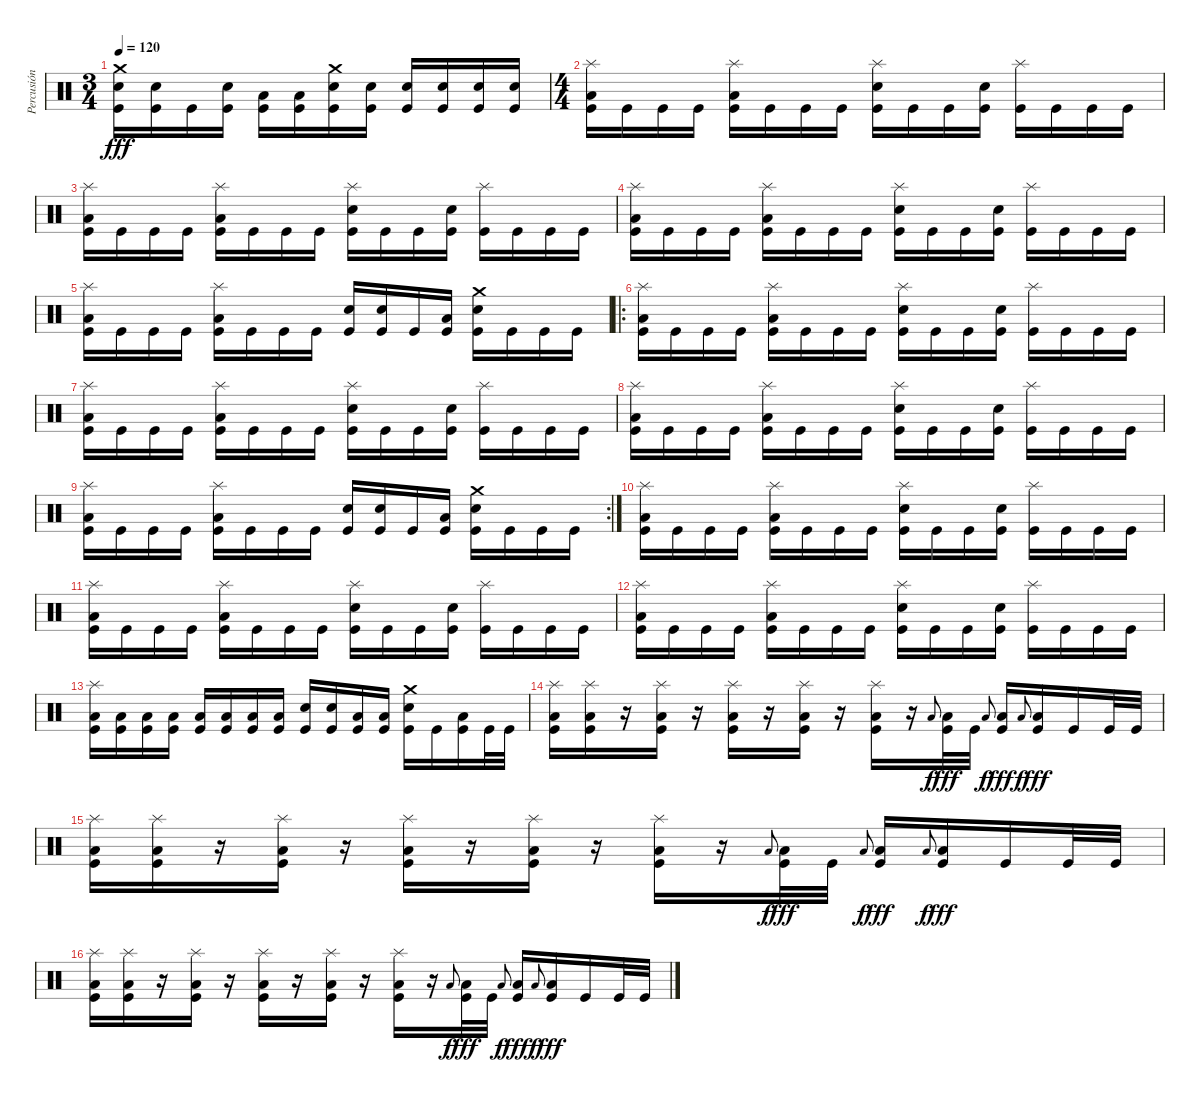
\track ("Percusión" "Percusión") {instrument percussion}
\staff {score}
\articulation defaults
\ts (3 4)
\tempo 120
\clef neutral
\ks c
("Crash medium (hit)" "Snare (hit) 2" "Kick (hit)").16{dy fff} ("Snare (hit) 2" "Kick (hit)").16 "Kick (hit)".16 ("Snare (hit) 2" "Kick (hit)").16 ("Low Floor Tom (hit)" "Kick (hit)").16 ("Low Floor Tom (hit)" "Kick (hit)").16 ("Crash medium (hit)" "Snare (hit) 2" "Kick (hit)").16 ("Snare (hit) 2" "Kick (hit)").16 ("Snare (hit) 2" "Kick (hit)").16 ("Snare (hit) 2" "Kick (hit)").16 ("Snare (hit) 2" "Kick (hit)").16 ("Snare (hit) 2" "Kick (hit)").16 |
\ts (4 4)
("Splash (hit)" "Low Floor Tom (hit)" "Kick (hit)").16 "Kick (hit)".16 "Kick (hit)".16 "Kick (hit)".16 ("Splash (hit)" "Low Floor Tom (hit)" "Kick (hit)").16 "Kick (hit)".16 "Kick (hit)".16 "Kick (hit)".16 ("Splash (hit)" "Snare (hit) 2" "Kick (hit)").16 "Kick (hit)".16 "Kick (hit)".16 ("Snare (hit) 2" "Kick (hit)").16 ("Splash (hit)" "Kick (hit)").16 "Kick (hit)".16 "Kick (hit)".16 "Kick (hit)".16 |
("Splash (hit)" "Low Floor Tom (hit)" "Kick (hit)").16 "Kick (hit)".16 "Kick (hit)".16 "Kick (hit)".16 ("Splash (hit)" "Low Floor Tom (hit)" "Kick (hit)").16 "Kick (hit)".16 "Kick (hit)".16 "Kick (hit)".16 ("Splash (hit)" "Snare (hit) 2" "Kick (hit)").16 "Kick (hit)".16 "Kick (hit)".16 ("Snare (hit) 2" "Kick (hit)").16 ("Splash (hit)" "Kick (hit)").16 "Kick (hit)".16 "Kick (hit)".16 "Kick (hit)".16 |
("Splash (hit)" "Low Floor Tom (hit)" "Kick (hit)").16 "Kick (hit)".16 "Kick (hit)".16 "Kick (hit)".16 ("Splash (hit)" "Low Floor Tom (hit)" "Kick (hit)").16 "Kick (hit)".16 "Kick (hit)".16 "Kick (hit)".16 ("Splash (hit)" "Snare (hit) 2" "Kick (hit)").16 "Kick (hit)".16 "Kick (hit)".16 ("Snare (hit) 2" "Kick (hit)").16 ("Splash (hit)" "Kick (hit)").16 "Kick (hit)".16 "Kick (hit)".16 "Kick (hit)".16 |
("Splash (hit)" "Low Floor Tom (hit)" "Kick (hit)").16 "Kick (hit)".16 "Kick (hit)".16 "Kick (hit)".16 ("Splash (hit)" "Low Floor Tom (hit)" "Kick (hit)").16 "Kick (hit)".16 "Kick (hit)".16 "Kick (hit)".16 ("Snare (hit) 2" "Kick (hit)").16 ("Snare (hit) 2" "Kick (hit)").16 "Kick (hit)".16 ("Low Floor Tom (hit)" "Kick (hit)").16 ("Crash medium (hit)" "Snare (hit) 2" "Kick (hit)").16 "Kick (hit)".16 "Kick (hit)".16 "Kick (hit)".16 |
\ro
("Splash (hit)" "Low Floor Tom (hit)" "Kick (hit)").16 "Kick (hit)".16 "Kick (hit)".16 "Kick (hit)".16 ("Splash (hit)" "Low Floor Tom (hit)" "Kick (hit)").16 "Kick (hit)".16 "Kick (hit)".16 "Kick (hit)".16 ("Splash (hit)" "Snare (hit) 2" "Kick (hit)").16 "Kick (hit)".16 "Kick (hit)".16 ("Snare (hit) 2" "Kick (hit)").16 ("Splash (hit)" "Kick (hit)").16 "Kick (hit)".16 "Kick (hit)".16 "Kick (hit)".16 |
("Splash (hit)" "Low Floor Tom (hit)" "Kick (hit)").16 "Kick (hit)".16 "Kick (hit)".16 "Kick (hit)".16 ("Splash (hit)" "Low Floor Tom (hit)" "Kick (hit)").16 "Kick (hit)".16 "Kick (hit)".16 "Kick (hit)".16 ("Splash (hit)" "Snare (hit) 2" "Kick (hit)").16 "Kick (hit)".16 "Kick (hit)".16 ("Snare (hit) 2" "Kick (hit)").16 ("Splash (hit)" "Kick (hit)").16 "Kick (hit)".16 "Kick (hit)".16 "Kick (hit)".16 |
("Splash (hit)" "Low Floor Tom (hit)" "Kick (hit)").16 "Kick (hit)".16 "Kick (hit)".16 "Kick (hit)".16 ("Splash (hit)" "Low Floor Tom (hit)" "Kick (hit)").16 "Kick (hit)".16 "Kick (hit)".16 "Kick (hit)".16 ("Splash (hit)" "Snare (hit) 2" "Kick (hit)").16 "Kick (hit)".16 "Kick (hit)".16 ("Snare (hit) 2" "Kick (hit)").16 ("Splash (hit)" "Kick (hit)").16 "Kick (hit)".16 "Kick (hit)".16 "Kick (hit)".16 |
\rc 2
("Splash (hit)" "Low Floor Tom (hit)" "Kick (hit)").16 "Kick (hit)".16 "Kick (hit)".16 "Kick (hit)".16 ("Splash (hit)" "Low Floor Tom (hit)" "Kick (hit)").16 "Kick (hit)".16 "Kick (hit)".16 "Kick (hit)".16 ("Snare (hit) 2" "Kick (hit)").16 ("Snare (hit) 2" "Kick (hit)").16 "Kick (hit)".16 ("Low Floor Tom (hit)" "Kick (hit)").16 ("Crash medium (hit)" "Snare (hit) 2" "Kick (hit)").16 "Kick (hit)".16 "Kick (hit)".16 "Kick (hit)".16 |
("Splash (hit)" "Low Floor Tom (hit)" "Kick (hit)").16 "Kick (hit)".16 "Kick (hit)".16 "Kick (hit)".16 ("Splash (hit)" "Low Floor Tom (hit)" "Kick (hit)").16 "Kick (hit)".16 "Kick (hit)".16 "Kick (hit)".16 ("Splash (hit)" "Snare (hit) 2" "Kick (hit)").16 "Kick (hit)".16 "Kick (hit)".16 ("Snare (hit) 2" "Kick (hit)").16 ("Splash (hit)" "Kick (hit)").16 "Kick (hit)".16 "Kick (hit)".16 "Kick (hit)".16 |
("Splash (hit)" "Low Floor Tom (hit)" "Kick (hit)").16 "Kick (hit)".16 "Kick (hit)".16 "Kick (hit)".16 ("Splash (hit)" "Low Floor Tom (hit)" "Kick (hit)").16 "Kick (hit)".16 "Kick (hit)".16 "Kick (hit)".16 ("Splash (hit)" "Snare (hit) 2" "Kick (hit)").16 "Kick (hit)".16 "Kick (hit)".16 ("Snare (hit) 2" "Kick (hit)").16 ("Splash (hit)" "Kick (hit)").16 "Kick (hit)".16 "Kick (hit)".16 "Kick (hit)".16 |
("Splash (hit)" "Low Floor Tom (hit)" "Kick (hit)").16 "Kick (hit)".16 "Kick (hit)".16 "Kick (hit)".16 ("Splash (hit)" "Low Floor Tom (hit)" "Kick (hit)").16 "Kick (hit)".16 "Kick (hit)".16 "Kick (hit)".16 ("Splash (hit)" "Snare (hit) 2" "Kick (hit)").16 "Kick (hit)".16 "Kick (hit)".16 ("Snare (hit) 2" "Kick (hit)").16 ("Splash (hit)" "Kick (hit)").16 "Kick (hit)".16 "Kick (hit)".16 "Kick (hit)".16 |
("Splash (hit)" "Low Floor Tom (hit)" "Kick (hit)").16 ("Low Floor Tom (hit)" "Kick (hit)").16 ("Low Floor Tom (hit)" "Kick (hit)").16 ("Low Floor Tom (hit)" "Kick (hit)").16 ("Low Floor Tom (hit)" "Kick (hit)").16 ("Low Floor Tom (hit)" "Kick (hit)").16 ("Low Floor Tom (hit)" "Kick (hit)").16 ("Low Floor Tom (hit)" "Kick (hit)").16 ("Snare (hit) 2" "Kick (hit)").16 ("Snare (hit) 2" "Kick (hit)").16 ("Low Floor Tom (hit)" "Kick (hit)").16 ("Low Floor Tom (hit)" "Kick (hit)").16 ("Crash medium (hit)" "Snare (hit) 2" "Kick (hit)").16 "Kick (hit)".16 ("Low Floor Tom (hit)" "Kick (hit)").16 "Kick (hit)".32 "Kick (hit)".32 |
("Splash (hit)" "Low Floor Tom (hit)" "Kick (hit)").16 ("Splash (hit)" "Low Floor Tom (hit)" "Kick (hit)").16 r.16 ("Splash (hit)" "Low Floor Tom (hit)" "Kick (hit)").16 r.16 ("Splash (hit)" "Low Floor Tom (hit)" "Kick (hit)").16 r.16 ("Splash (hit)" "Low Floor Tom (hit)" "Kick (hit)").16 r.16 ("Splash (hit)" "Low Floor Tom (hit)" "Kick (hit)").16 r.16 "Low Floor Tom (hit)".8{gr onbeat dy f} ("Low Floor Tom (hit)" "Kick (hit)").32{dy fff} "Kick (hit)".32 "Low Floor Tom (hit)".8{gr onbeat dy f} ("Low Floor Tom (hit)" "Kick (hit)").16{dy fff} "Low Floor Tom (hit)".8{gr onbeat dy f} ("Low Floor Tom (hit)" "Kick (hit)").16{dy fff} "Kick (hit)".16 "Kick (hit)".32 "Kick (hit)".32 |
("Splash (hit)" "Low Floor Tom (hit)" "Kick (hit)").16 ("Splash (hit)" "Low Floor Tom (hit)" "Kick (hit)").16 r.16 ("Splash (hit)" "Low Floor Tom (hit)" "Kick (hit)").16 r.16 ("Splash (hit)" "Low Floor Tom (hit)" "Kick (hit)").16 r.16 ("Splash (hit)" "Low Floor Tom (hit)" "Kick (hit)").16 r.16 ("Splash (hit)" "Low Floor Tom (hit)" "Kick (hit)").16 r.16 "Low Floor Tom (hit)".8{gr onbeat dy f} ("Low Floor Tom (hit)" "Kick (hit)").32{dy fff} "Kick (hit)".32 "Low Floor Tom (hit)".8{gr onbeat dy f} ("Low Floor Tom (hit)" "Kick (hit)").16{dy fff} "Low Floor Tom (hit)".8{gr onbeat dy f} ("Low Floor Tom (hit)" "Kick (hit)").16{dy fff} "Kick (hit)".16 "Kick (hit)".32 "Kick (hit)".32 |
("Splash (hit)" "Low Floor Tom (hit)" "Kick (hit)").16 ("Splash (hit)" "Low Floor Tom (hit)" "Kick (hit)").16 r.16 ("Splash (hit)" "Low Floor Tom (hit)" "Kick (hit)").16 r.16 ("Splash (hit)" "Low Floor Tom (hit)" "Kick (hit)").16 r.16 ("Splash (hit)" "Low Floor Tom (hit)" "Kick (hit)").16 r.16 ("Splash (hit)" "Low Floor Tom (hit)" "Kick (hit)").16 r.16 "Low Floor Tom (hit)".8{gr onbeat dy f} ("Low Floor Tom (hit)" "Kick (hit)").32{dy fff} "Kick (hit)".32 "Low Floor Tom (hit)".8{gr onbeat dy f} ("Low Floor Tom (hit)" "Kick (hit)").16{dy fff} "Low Floor Tom (hit)".8{gr onbeat dy f} ("Low Floor Tom (hit)" "Kick (hit)").16{dy fff} "Kick (hit)".16 "Kick (hit)".32 "Kick (hit)".32
